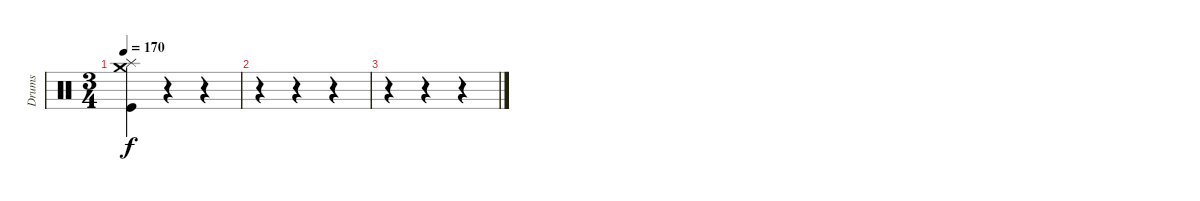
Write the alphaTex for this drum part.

\track ("Drums" "Drums") {instrument percussion}
\staff {score}
\articulation defaults
\ts (3 4)
\tempo 170
\clef neutral
\ks c
("Splash (hit)" "Crash medium (hit)" "Kick (hit)").4{dy f} r.4 r.4 |
r.4 r.4 r.4 |
r.4 r.4 r.4
